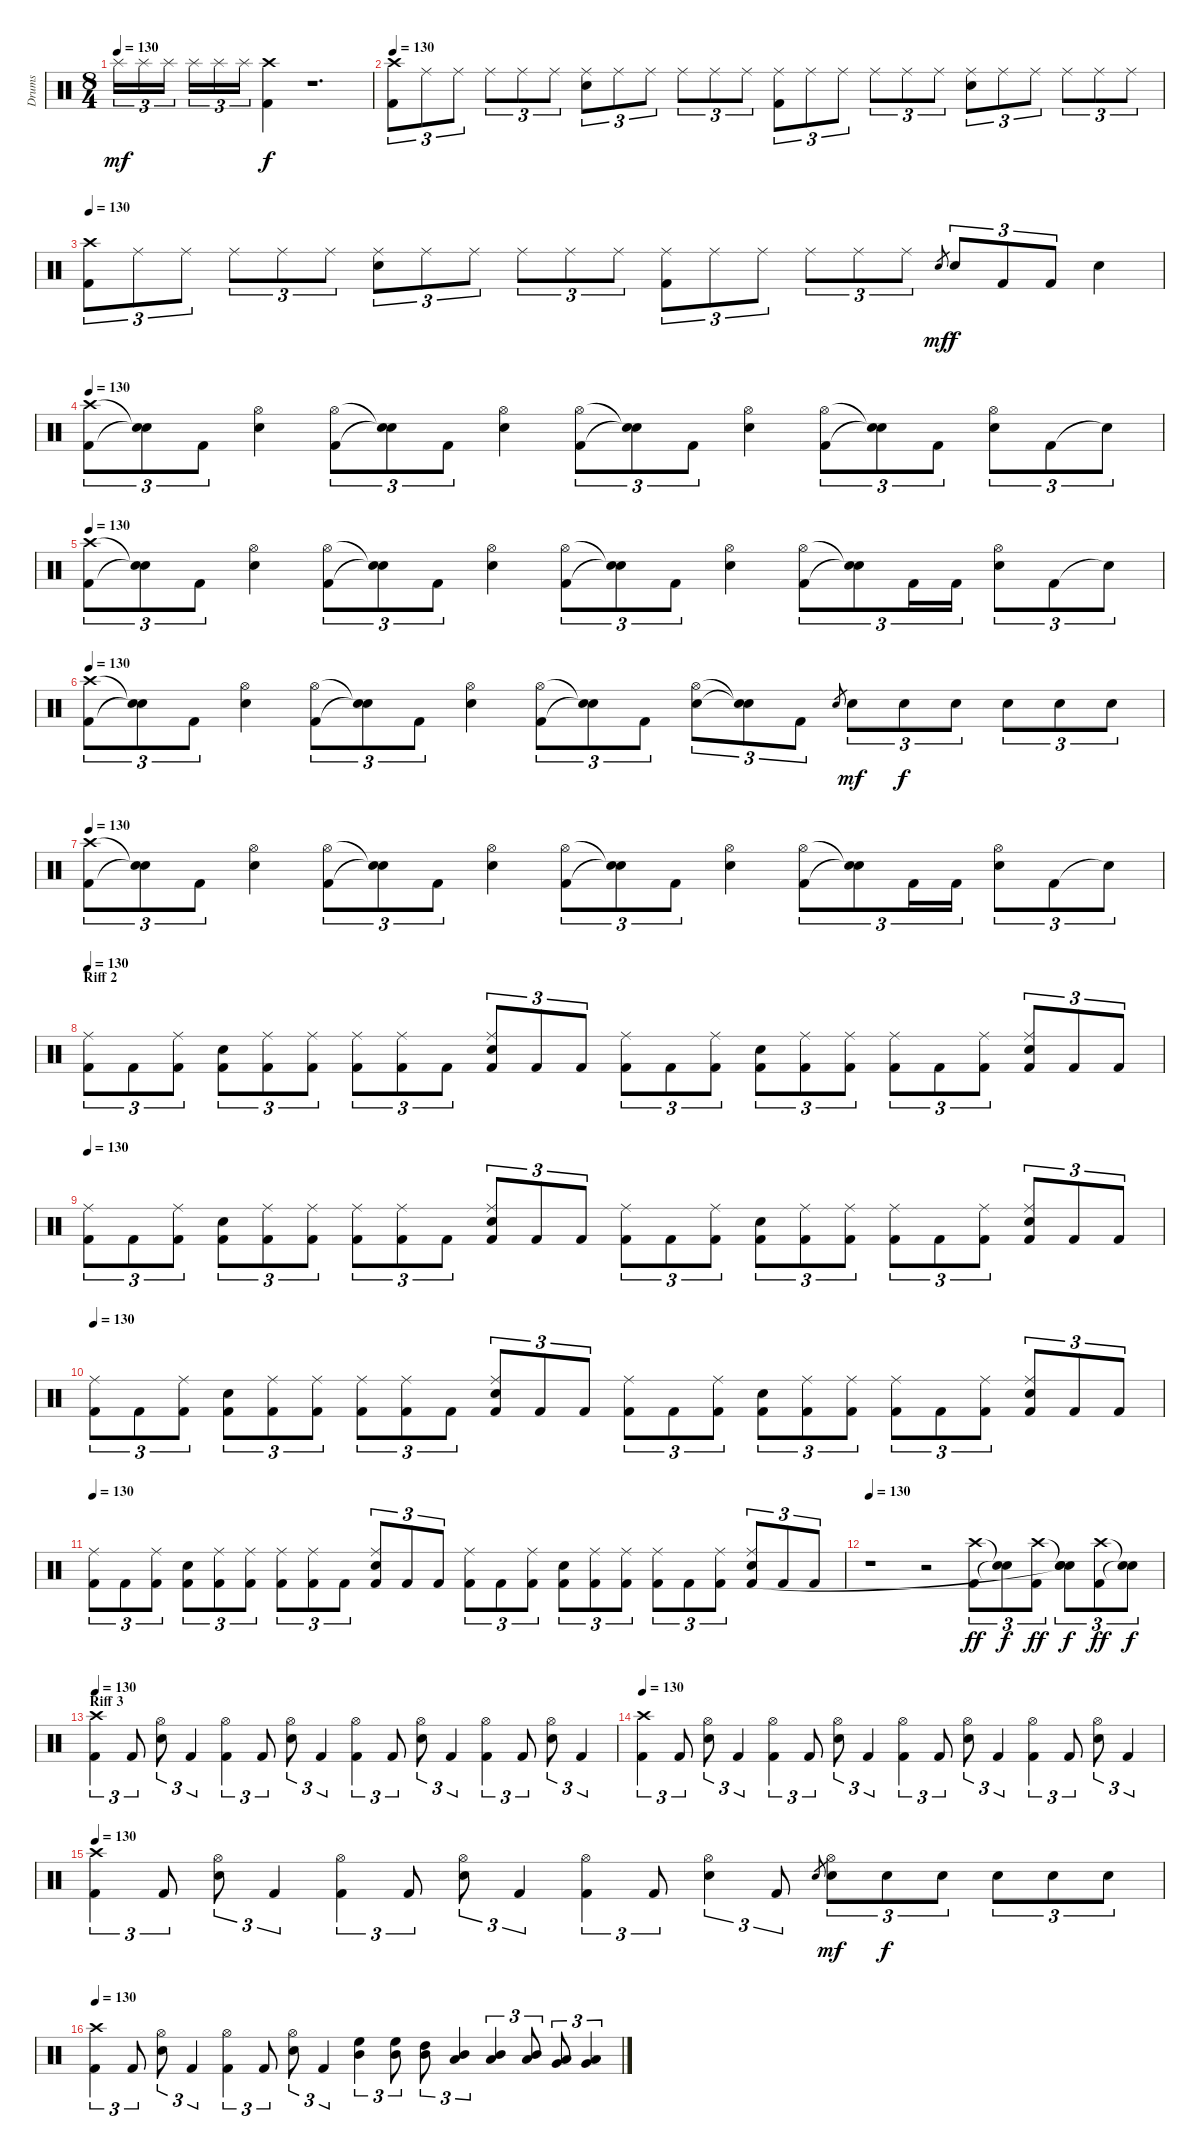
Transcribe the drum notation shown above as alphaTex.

\track ("Drums" "Drums") {instrument percussion}
\staff {score}
\articulation defaults
\ts (8 4)
\tempo 130
\clef neutral
\ks c "Splash (hit)".16{tu (3 2) dy mf} "Splash (hit)".16{tu (3 2)} "Splash (hit)".16{tu (3 2)} "Splash (hit)".16{tu (3 2)} "Splash (hit)".16{tu (3 2)} "Splash (hit)".16{tu (3 2)}
("Crash high (hit)" "Kick (hit) 2").4{dy f} r.1{d} |
\tempo 130
("Crash high (hit)" "Kick (hit) 2").8{tu (3 2)} "Ride (middle)".8{tu (3 2)} "Ride (middle)".8{tu (3 2)} "Ride (middle)".8{tu (3 2)} "Ride (middle)".8{tu (3 2)} "Ride (middle)".8{tu (3 2)} ("Ride (middle)" "Electric Snare (hit)").8{tu (3 2)} "Ride (middle)".8{tu (3 2)} "Ride (middle)".8{tu (3 2)} "Ride (middle)".8{tu (3 2)} "Ride (middle)".8{tu (3 2)} "Ride (middle)".8{tu (3 2)} ("Ride (middle)" "Kick (hit) 2").8{tu (3 2)} "Ride (middle)".8{tu (3 2)} "Ride (middle)".8{tu (3 2)} "Ride (middle)".8{tu (3 2)} "Ride (middle)".8{tu (3 2)} "Ride (middle)".8{tu (3 2)} ("Ride (middle)" "Electric Snare (hit)").8{tu (3 2)} "Ride (middle)".8{tu (3 2)} "Ride (middle)".8{tu (3 2)} "Ride (middle)".8{tu (3 2)} "Ride (middle)".8{tu (3 2)} "Ride (middle)".8{tu (3 2)} |
\tempo 130
("Crash high (hit)" "Kick (hit) 2").8{tu (3 2)} "Ride (middle)".8{tu (3 2)} "Ride (middle)".8{tu (3 2)} "Ride (middle)".8{tu (3 2)} "Ride (middle)".8{tu (3 2)} "Ride (middle)".8{tu (3 2)} ("Ride (middle)" "Electric Snare (hit)").8{tu (3 2)} "Ride (middle)".8{tu (3 2)} "Ride (middle)".8{tu (3 2)} "Ride (middle)".8{tu (3 2)} "Ride (middle)".8{tu (3 2)} "Ride (middle)".8{tu (3 2)} ("Ride (middle)" "Kick (hit) 2").8{tu (3 2)} "Ride (middle)".8{tu (3 2)} "Ride (middle)".8{tu (3 2)} "Ride (middle)".8{tu (3 2)} "Ride (middle)".8{tu (3 2)} "Ride (middle)".8{tu (3 2)} "Electric Snare (hit)".8{gr dy mf} "Electric Snare (hit)".8{tu (3 2) dy f} "Kick (hit) 2".8{tu (3 2)} "Kick (hit) 2".8{tu (3 2)} "Electric Snare (hit)".4 |
\tempo 130
("Crash high (hit)" "Kick (hit) 2").8{tu (3 2)} ("Snare (hit)"{t} "Snare (hit)"{t}).8{tu (3 2)} "Kick (hit) 2".8{tu (3 2)} ("Hi-Hat (open)" "Electric Snare (hit)").4 ("Hi-Hat (open)" "Kick (hit) 2").8{tu (3 2)} ("Snare (hit)"{t} "Snare (hit)"{t}).8{tu (3 2)} "Kick (hit) 2".8{tu (3 2)} ("Hi-Hat (open)" "Electric Snare (hit)").4 ("Hi-Hat (open)" "Kick (hit) 2").8{tu (3 2)} ("Snare (hit)"{t} "Snare (hit)"{t}).8{tu (3 2)} "Kick (hit) 2".8{tu (3 2)} ("Hi-Hat (open)" "Electric Snare (hit)").4 ("Hi-Hat (open)" "Kick (hit) 2").8{tu (3 2)} ("Snare (hit)"{t} "Snare (hit)"{t}).8{tu (3 2)} "Kick (hit) 2".8{tu (3 2)} ("Hi-Hat (open)" "Electric Snare (hit)").8{tu (3 2)} "Kick (hit) 2".8{tu (3 2)} "Snare (hit)"{t}.8{tu (3 2)} |
\tempo 130
("Crash high (hit)" "Kick (hit) 2").8{tu (3 2)} ("Snare (hit)"{t} "Snare (hit)"{t}).8{tu (3 2)} "Kick (hit) 2".8{tu (3 2)} ("Hi-Hat (open)" "Electric Snare (hit)").4 ("Hi-Hat (open)" "Kick (hit) 2").8{tu (3 2)} ("Snare (hit)"{t} "Snare (hit)"{t}).8{tu (3 2)} "Kick (hit) 2".8{tu (3 2)} ("Hi-Hat (open)" "Electric Snare (hit)").4 ("Hi-Hat (open)" "Kick (hit) 2").8{tu (3 2)} ("Snare (hit)"{t} "Snare (hit)"{t}).8{tu (3 2)} "Kick (hit) 2".8{tu (3 2)} ("Hi-Hat (open)" "Electric Snare (hit)").4 ("Hi-Hat (open)" "Kick (hit) 2").8{tu (3 2)} ("Snare (hit)"{t} "Snare (hit)"{t}).8{tu (3 2)} "Kick (hit) 2".16{tu (3 2)} "Kick (hit) 2".16{tu (3 2)} ("Hi-Hat (open)" "Electric Snare (hit)").8{tu (3 2)} "Kick (hit) 2".8{tu (3 2)} "Snare (hit)"{t}.8{tu (3 2)} |
\tempo 130
("Crash high (hit)" "Kick (hit) 2").8{tu (3 2)} ("Snare (hit)"{t} "Snare (hit)"{t}).8{tu (3 2)} "Kick (hit) 2".8{tu (3 2)} ("Hi-Hat (open)" "Electric Snare (hit)").4 ("Hi-Hat (open)" "Kick (hit) 2").8{tu (3 2)} ("Snare (hit)"{t} "Snare (hit)"{t}).8{tu (3 2)} "Kick (hit) 2".8{tu (3 2)} ("Hi-Hat (open)" "Electric Snare (hit)").4 ("Hi-Hat (open)" "Kick (hit) 2").8{tu (3 2)} ("Snare (hit)"{t} "Snare (hit)"{t}).8{tu (3 2)} "Kick (hit) 2".8{tu (3 2)} ("Hi-Hat (open)" "Electric Snare (hit)").8{tu (3 2)} ("Snare (hit)"{t} "Snare (hit)"{t}).8{tu (3 2)} "Kick (hit) 2".8{tu (3 2)} "Electric Snare (hit)".8{gr} "Electric Snare (hit)".8{tu (3 2) dy mf} "Electric Snare (hit)".8{tu (3 2) dy f} "Electric Snare (hit)".8{tu (3 2)} "Electric Snare (hit)".8{tu (3 2)} "Electric Snare (hit)".8{tu (3 2)} "Electric Snare (hit)".8{tu (3 2)} |
\tempo 130
("Crash high (hit)" "Kick (hit) 2").8{tu (3 2)} ("Snare (hit)"{t} "Snare (hit)"{t}).8{tu (3 2)} "Kick (hit) 2".8{tu (3 2)} ("Hi-Hat (open)" "Electric Snare (hit)").4 ("Hi-Hat (open)" "Kick (hit) 2").8{tu (3 2)} ("Snare (hit)"{t} "Snare (hit)"{t}).8{tu (3 2)} "Kick (hit) 2".8{tu (3 2)} ("Hi-Hat (open)" "Electric Snare (hit)").4 ("Hi-Hat (open)" "Kick (hit) 2").8{tu (3 2)} ("Snare (hit)"{t} "Snare (hit)"{t}).8{tu (3 2)} "Kick (hit) 2".8{tu (3 2)} ("Hi-Hat (open)" "Electric Snare (hit)").4 ("Hi-Hat (open)" "Kick (hit) 2").8{tu (3 2)} ("Snare (hit)"{t} "Snare (hit)"{t}).8{tu (3 2)} "Kick (hit) 2".16{tu (3 2)} "Kick (hit) 2".16{tu (3 2)} ("Hi-Hat (open)" "Electric Snare (hit)").8{tu (3 2)} "Kick (hit) 2".8{tu (3 2)} "Snare (hit)"{t}.8{tu (3 2)} |
\section ("" "Riff 2")
\tempo 130
("Ride (middle)" "Kick (hit) 2").8{tu (3 2)} "Kick (hit) 2".8{tu (3 2)} ("Ride (middle)" "Kick (hit) 2").8{tu (3 2)} ("Electric Snare (hit)" "Kick (hit) 2").8{tu (3 2)} ("Ride (middle)" "Kick (hit) 2").8{tu (3 2)} ("Ride (middle)" "Kick (hit) 2").8{tu (3 2)} ("Ride (middle)" "Kick (hit) 2").8{tu (3 2)} ("Ride (middle)" "Kick (hit) 2").8{tu (3 2)} "Kick (hit) 2".8{tu (3 2)} ("Ride (middle)" "Electric Snare (hit)" "Kick (hit) 2").8{tu (3 2)} "Kick (hit) 2".8{tu (3 2)} "Kick (hit) 2".8{tu (3 2)} ("Ride (middle)" "Kick (hit) 2").8{tu (3 2)} "Kick (hit) 2".8{tu (3 2)} ("Ride (middle)" "Kick (hit) 2").8{tu (3 2)} ("Electric Snare (hit)" "Kick (hit) 2").8{tu (3 2)} ("Ride (middle)" "Kick (hit) 2").8{tu (3 2)} ("Ride (middle)" "Kick (hit) 2").8{tu (3 2)} ("Ride (middle)" "Kick (hit) 2").8{tu (3 2)} "Kick (hit) 2".8{tu (3 2)} ("Ride (middle)" "Kick (hit) 2").8{tu (3 2)} ("Ride (middle)" "Electric Snare (hit)" "Kick (hit) 2").8{tu (3 2)} "Kick (hit) 2".8{tu (3 2)} "Kick (hit) 2".8{tu (3 2)} |
\tempo 130
("Ride (middle)" "Kick (hit) 2").8{tu (3 2)} "Kick (hit) 2".8{tu (3 2)} ("Ride (middle)" "Kick (hit) 2").8{tu (3 2)} ("Electric Snare (hit)" "Kick (hit) 2").8{tu (3 2)} ("Ride (middle)" "Kick (hit) 2").8{tu (3 2)} ("Ride (middle)" "Kick (hit) 2").8{tu (3 2)} ("Ride (middle)" "Kick (hit) 2").8{tu (3 2)} ("Ride (middle)" "Kick (hit) 2").8{tu (3 2)} "Kick (hit) 2".8{tu (3 2)} ("Ride (middle)" "Electric Snare (hit)" "Kick (hit) 2").8{tu (3 2)} "Kick (hit) 2".8{tu (3 2)} "Kick (hit) 2".8{tu (3 2)} ("Ride (middle)" "Kick (hit) 2").8{tu (3 2)} "Kick (hit) 2".8{tu (3 2)} ("Ride (middle)" "Kick (hit) 2").8{tu (3 2)} ("Electric Snare (hit)" "Kick (hit) 2").8{tu (3 2)} ("Ride (middle)" "Kick (hit) 2").8{tu (3 2)} ("Ride (middle)" "Kick (hit) 2").8{tu (3 2)} ("Ride (middle)" "Kick (hit) 2").8{tu (3 2)} "Kick (hit) 2".8{tu (3 2)} ("Ride (middle)" "Kick (hit) 2").8{tu (3 2)} ("Ride (middle)" "Electric Snare (hit)" "Kick (hit) 2").8{tu (3 2)} "Kick (hit) 2".8{tu (3 2)} "Kick (hit) 2".8{tu (3 2)} |
\tempo 130
("Ride (middle)" "Kick (hit) 2").8{tu (3 2)} "Kick (hit) 2".8{tu (3 2)} ("Ride (middle)" "Kick (hit) 2").8{tu (3 2)} ("Electric Snare (hit)" "Kick (hit) 2").8{tu (3 2)} ("Ride (middle)" "Kick (hit) 2").8{tu (3 2)} ("Ride (middle)" "Kick (hit) 2").8{tu (3 2)} ("Ride (middle)" "Kick (hit) 2").8{tu (3 2)} ("Ride (middle)" "Kick (hit) 2").8{tu (3 2)} "Kick (hit) 2".8{tu (3 2)} ("Ride (middle)" "Electric Snare (hit)" "Kick (hit) 2").8{tu (3 2)} "Kick (hit) 2".8{tu (3 2)} "Kick (hit) 2".8{tu (3 2)} ("Ride (middle)" "Kick (hit) 2").8{tu (3 2)} "Kick (hit) 2".8{tu (3 2)} ("Ride (middle)" "Kick (hit) 2").8{tu (3 2)} ("Electric Snare (hit)" "Kick (hit) 2").8{tu (3 2)} ("Ride (middle)" "Kick (hit) 2").8{tu (3 2)} ("Ride (middle)" "Kick (hit) 2").8{tu (3 2)} ("Ride (middle)" "Kick (hit) 2").8{tu (3 2)} "Kick (hit) 2".8{tu (3 2)} ("Ride (middle)" "Kick (hit) 2").8{tu (3 2)} ("Ride (middle)" "Electric Snare (hit)" "Kick (hit) 2").8{tu (3 2)} "Kick (hit) 2".8{tu (3 2)} "Kick (hit) 2".8{tu (3 2)} |
\tempo 130
("Ride (middle)" "Kick (hit) 2").8{tu (3 2)} "Kick (hit) 2".8{tu (3 2)} ("Ride (middle)" "Kick (hit) 2").8{tu (3 2)} ("Electric Snare (hit)" "Kick (hit) 2").8{tu (3 2)} ("Ride (middle)" "Kick (hit) 2").8{tu (3 2)} ("Ride (middle)" "Kick (hit) 2").8{tu (3 2)} ("Ride (middle)" "Kick (hit) 2").8{tu (3 2)} ("Ride (middle)" "Kick (hit) 2").8{tu (3 2)} "Kick (hit) 2".8{tu (3 2)} ("Ride (middle)" "Electric Snare (hit)" "Kick (hit) 2").8{tu (3 2)} "Kick (hit) 2".8{tu (3 2)} "Kick (hit) 2".8{tu (3 2)} ("Ride (middle)" "Kick (hit) 2").8{tu (3 2)} "Kick (hit) 2".8{tu (3 2)} ("Ride (middle)" "Kick (hit) 2").8{tu (3 2)} ("Electric Snare (hit)" "Kick (hit) 2").8{tu (3 2)} ("Ride (middle)" "Kick (hit) 2").8{tu (3 2)} ("Ride (middle)" "Kick (hit) 2").8{tu (3 2)} ("Ride (middle)" "Kick (hit) 2").8{tu (3 2)} "Kick (hit) 2".8{tu (3 2)} ("Ride (middle)" "Kick (hit) 2").8{tu (3 2)} ("Ride (middle)" "Electric Snare (hit)" "Kick (hit) 2").8{tu (3 2)} "Kick (hit) 2".8{tu (3 2)} "Kick (hit) 2".8{tu (3 2)} |
\tempo 130
r.1 r.2 ("Crash high (hit)" "Kick (hit) 2").8{tu (3 2) dy ff} ("Snare (hit)"{t} "Snare (hit)"{t}).8{tu (3 2) dy f} ("Crash high (hit)" "Kick (hit) 2").8{tu (3 2) dy ff} ("Snare (hit)"{t} "Electric Snare (hit)" "Snare (hit)"{t}).8{tu (3 2) dy f} ("Crash high (hit)" "Kick (hit) 2").8{tu (3 2) dy ff} ("Snare (hit)"{t} "Snare (hit)"{t}).8{tu (3 2) dy f} |
\section ("" "Riff 3")
\tempo 130
("Crash high (hit)" "Kick (hit) 2").4{tu (3 2)} "Kick (hit) 2".8{tu (3 2)} ("Hi-Hat (open)" "Electric Snare (hit)").8{tu (3 2)} "Kick (hit) 2".4{tu (3 2)} ("Hi-Hat (open)" "Kick (hit) 2").4{tu (3 2)} "Kick (hit) 2".8{tu (3 2)} ("Hi-Hat (open)" "Electric Snare (hit)").8{tu (3 2)} "Kick (hit) 2".4{tu (3 2)} ("Hi-Hat (open)" "Kick (hit) 2").4{tu (3 2)} "Kick (hit) 2".8{tu (3 2)} ("Hi-Hat (open)" "Electric Snare (hit)").8{tu (3 2)} "Kick (hit) 2".4{tu (3 2)} ("Hi-Hat (open)" "Kick (hit) 2").4{tu (3 2)} "Kick (hit) 2".8{tu (3 2)} ("Hi-Hat (open)" "Electric Snare (hit)").8{tu (3 2)} "Kick (hit) 2".4{tu (3 2)} |
\tempo 130
("Crash high (hit)" "Kick (hit) 2").4{tu (3 2)} "Kick (hit) 2".8{tu (3 2)} ("Hi-Hat (open)" "Electric Snare (hit)").8{tu (3 2)} "Kick (hit) 2".4{tu (3 2)} ("Hi-Hat (open)" "Kick (hit) 2").4{tu (3 2)} "Kick (hit) 2".8{tu (3 2)} ("Hi-Hat (open)" "Electric Snare (hit)").8{tu (3 2)} "Kick (hit) 2".4{tu (3 2)} ("Hi-Hat (open)" "Kick (hit) 2").4{tu (3 2)} "Kick (hit) 2".8{tu (3 2)} ("Hi-Hat (open)" "Electric Snare (hit)").8{tu (3 2)} "Kick (hit) 2".4{tu (3 2)} ("Hi-Hat (open)" "Kick (hit) 2").4{tu (3 2)} "Kick (hit) 2".8{tu (3 2)} ("Hi-Hat (open)" "Electric Snare (hit)").8{tu (3 2)} "Kick (hit) 2".4{tu (3 2)} |
\tempo 130
("Crash high (hit)" "Kick (hit) 2").4{tu (3 2)} "Kick (hit) 2".8{tu (3 2)} ("Hi-Hat (open)" "Electric Snare (hit)").8{tu (3 2)} "Kick (hit) 2".4{tu (3 2)} ("Hi-Hat (open)" "Kick (hit) 2").4{tu (3 2)} "Kick (hit) 2".8{tu (3 2)} ("Hi-Hat (open)" "Electric Snare (hit)").8{tu (3 2)} "Kick (hit) 2".4{tu (3 2)} ("Hi-Hat (open)" "Kick (hit) 2").4{tu (3 2)} "Kick (hit) 2".8{tu (3 2)} ("Hi-Hat (open)" "Electric Snare (hit)").4{tu (3 2)} "Kick (hit) 2".8{tu (3 2)} "Electric Snare (hit)".8{gr} ("Hi-Hat (open)" "Electric Snare (hit)").8{tu (3 2) dy mf} "Electric Snare (hit)".8{tu (3 2) dy f} "Electric Snare (hit)".8{tu (3 2)} "Electric Snare (hit)".8{tu (3 2)} "Electric Snare (hit)".8{tu (3 2)} "Electric Snare (hit)".8{tu (3 2)} |
\tempo 130
("Crash high (hit)" "Kick (hit) 2").4{tu (3 2)} "Kick (hit) 2".8{tu (3 2)} ("Hi-Hat (open)" "Electric Snare (hit)").8{tu (3 2)} "Kick (hit) 2".4{tu (3 2)} ("Hi-Hat (open)" "Kick (hit) 2").4{tu (3 2)} "Kick (hit) 2".8{tu (3 2)} ("Hi-Hat (open)" "Electric Snare (hit)").8{tu (3 2)} "Kick (hit) 2".4{tu (3 2)} ("High Floor Tom (hit)" "Mid Tom (hit)").4{tu (3 2)} ("High Floor Tom (hit)" "Mid Tom (hit)").8{tu (3 2)} ("High Tom (hit)" "Mid Tom (hit)").8{tu (3 2)} ("Mid Tom (hit)" "Low Tom (hit)").4{tu (3 2)} ("Mid Tom (hit)" "Low Tom (hit)").4{tu (3 2)} ("Mid Tom (hit)" "Low Tom (hit)").8{tu (3 2)} ("Low Tom (hit)" "Very Low Tom (hit)").8{tu (3 2)} ("Very Low Tom (hit)" "Low Floor Tom (hit)").4{tu (3 2)}
